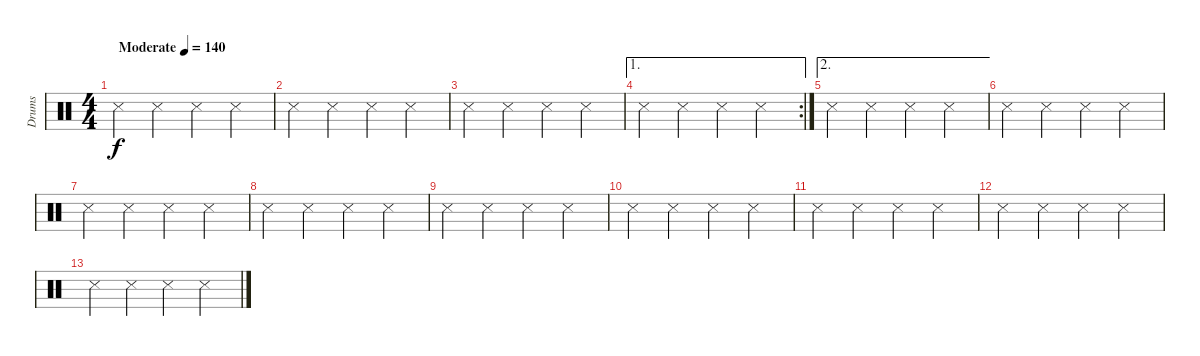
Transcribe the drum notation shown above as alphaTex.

\track ("Drums" "Drums") {instrument percussion}
\staff {score}
\articulation defaults
\ts (4 4)
\tempo (140 "Moderate")
\clef neutral
\ks c "Snare (side stick) 3".4{dy f} "Snare (side stick) 3".4 "Snare (side stick) 3".4 "Snare (side stick) 3".4
|
"Snare (side stick) 3".4 "Snare (side stick) 3".4 "Snare (side stick) 3".4 "Snare (side stick) 3".4 |
"Snare (side stick) 3".4 "Snare (side stick) 3".4 "Snare (side stick) 3".4 "Snare (side stick) 3".4 |
\ae 1
\rc 2 "Snare (side stick) 3".4 "Snare (side stick) 3".4 "Snare (side stick) 3".4 "Snare (side stick) 3".4
|
\ae 2 "Snare (side stick) 3".4 "Snare (side stick) 3".4 "Snare (side stick) 3".4 "Snare (side stick) 3".4
|
"Snare (side stick) 3".4 "Snare (side stick) 3".4 "Snare (side stick) 3".4 "Snare (side stick) 3".4 |
"Snare (side stick) 3".4 "Snare (side stick) 3".4 "Snare (side stick) 3".4 "Snare (side stick) 3".4 |
"Snare (side stick) 3".4 "Snare (side stick) 3".4 "Snare (side stick) 3".4 "Snare (side stick) 3".4 |
"Snare (side stick) 3".4 "Snare (side stick) 3".4 "Snare (side stick) 3".4 "Snare (side stick) 3".4 |
"Snare (side stick) 3".4 "Snare (side stick) 3".4 "Snare (side stick) 3".4 "Snare (side stick) 3".4 |
"Snare (side stick) 3".4 "Snare (side stick) 3".4 "Snare (side stick) 3".4 "Snare (side stick) 3".4 |
"Snare (side stick) 3".4 "Snare (side stick) 3".4 "Snare (side stick) 3".4 "Snare (side stick) 3".4 |
"Snare (side stick) 3".4 "Snare (side stick) 3".4 "Snare (side stick) 3".4 "Snare (side stick) 3".4
